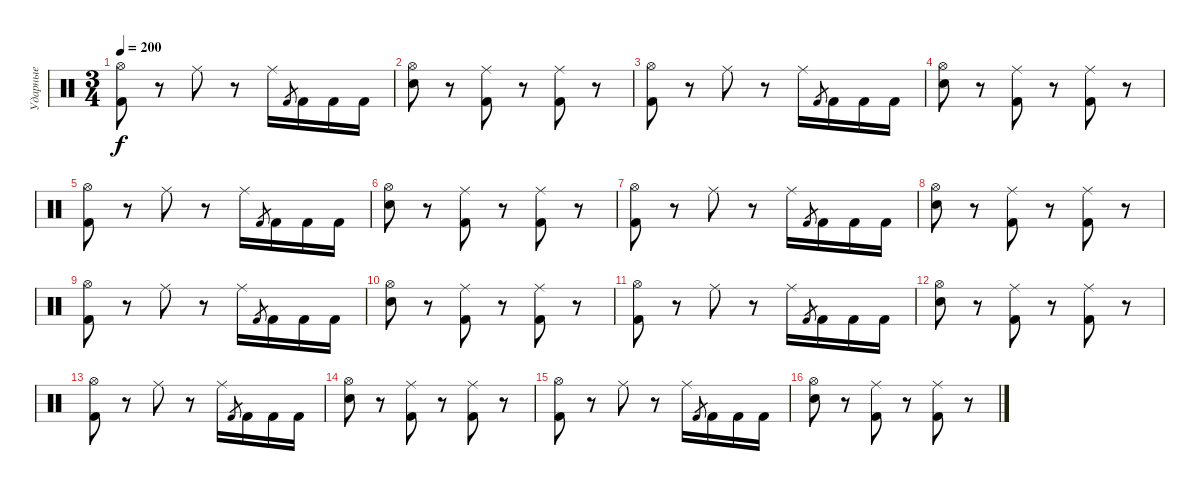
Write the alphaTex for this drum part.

\track ("Ударные" "Ударные") {instrument percussion}
\staff {score}
\articulation defaults
\ts (3 4)
\tempo 200
\clef neutral
\ks c
("Hi-Hat (open)" "Kick (hit) 2").8{dy f} r.8 "Ride (middle)".8 r.8 "Ride (middle)".16 "Kick (hit) 2".8{gr} "Kick (hit) 2".16 "Kick (hit) 2".16 "Kick (hit) 2".16 |
("Hi-Hat (open)" "Electric Snare (hit)").8 r.8 ("Ride (middle)" "Kick (hit) 2").8 r.8 ("Ride (middle)" "Kick (hit) 2").8 r.8 |
("Hi-Hat (open)" "Kick (hit) 2").8 r.8 "Ride (middle)".8 r.8 "Ride (middle)".16 "Kick (hit) 2".8{gr} "Kick (hit) 2".16 "Kick (hit) 2".16 "Kick (hit) 2".16 |
("Hi-Hat (open)" "Electric Snare (hit)").8 r.8 ("Ride (middle)" "Kick (hit) 2").8 r.8 ("Ride (middle)" "Kick (hit) 2").8 r.8 |
("Hi-Hat (open)" "Kick (hit) 2").8 r.8 "Ride (middle)".8 r.8 "Ride (middle)".16 "Kick (hit) 2".8{gr} "Kick (hit) 2".16 "Kick (hit) 2".16 "Kick (hit) 2".16 |
("Hi-Hat (open)" "Electric Snare (hit)").8 r.8 ("Ride (middle)" "Kick (hit) 2").8 r.8 ("Ride (middle)" "Kick (hit) 2").8 r.8 |
("Hi-Hat (open)" "Kick (hit) 2").8 r.8 "Ride (middle)".8 r.8 "Ride (middle)".16 "Kick (hit) 2".8{gr} "Kick (hit) 2".16 "Kick (hit) 2".16 "Kick (hit) 2".16 |
("Hi-Hat (open)" "Electric Snare (hit)").8 r.8 ("Ride (middle)" "Kick (hit) 2").8 r.8 ("Ride (middle)" "Kick (hit) 2").8 r.8 |
("Hi-Hat (open)" "Kick (hit) 2").8 r.8 "Ride (middle)".8 r.8 "Ride (middle)".16 "Kick (hit) 2".8{gr} "Kick (hit) 2".16 "Kick (hit) 2".16 "Kick (hit) 2".16 |
("Hi-Hat (open)" "Electric Snare (hit)").8 r.8 ("Ride (middle)" "Kick (hit) 2").8 r.8 ("Ride (middle)" "Kick (hit) 2").8 r.8 |
("Hi-Hat (open)" "Kick (hit) 2").8 r.8 "Ride (middle)".8 r.8 "Ride (middle)".16 "Kick (hit) 2".8{gr} "Kick (hit) 2".16 "Kick (hit) 2".16 "Kick (hit) 2".16 |
("Hi-Hat (open)" "Electric Snare (hit)").8 r.8 ("Ride (middle)" "Kick (hit) 2").8 r.8 ("Ride (middle)" "Kick (hit) 2").8 r.8 |
("Hi-Hat (open)" "Kick (hit) 2").8 r.8 "Ride (middle)".8 r.8 "Ride (middle)".16 "Kick (hit) 2".8{gr} "Kick (hit) 2".16 "Kick (hit) 2".16 "Kick (hit) 2".16 |
("Hi-Hat (open)" "Electric Snare (hit)").8 r.8 ("Ride (middle)" "Kick (hit) 2").8 r.8 ("Ride (middle)" "Kick (hit) 2").8 r.8 |
("Hi-Hat (open)" "Kick (hit) 2").8 r.8 "Ride (middle)".8 r.8 "Ride (middle)".16 "Kick (hit) 2".8{gr} "Kick (hit) 2".16 "Kick (hit) 2".16 "Kick (hit) 2".16 |
("Hi-Hat (open)" "Electric Snare (hit)").8 r.8 ("Ride (middle)" "Kick (hit) 2").8 r.8 ("Ride (middle)" "Kick (hit) 2").8 r.8
